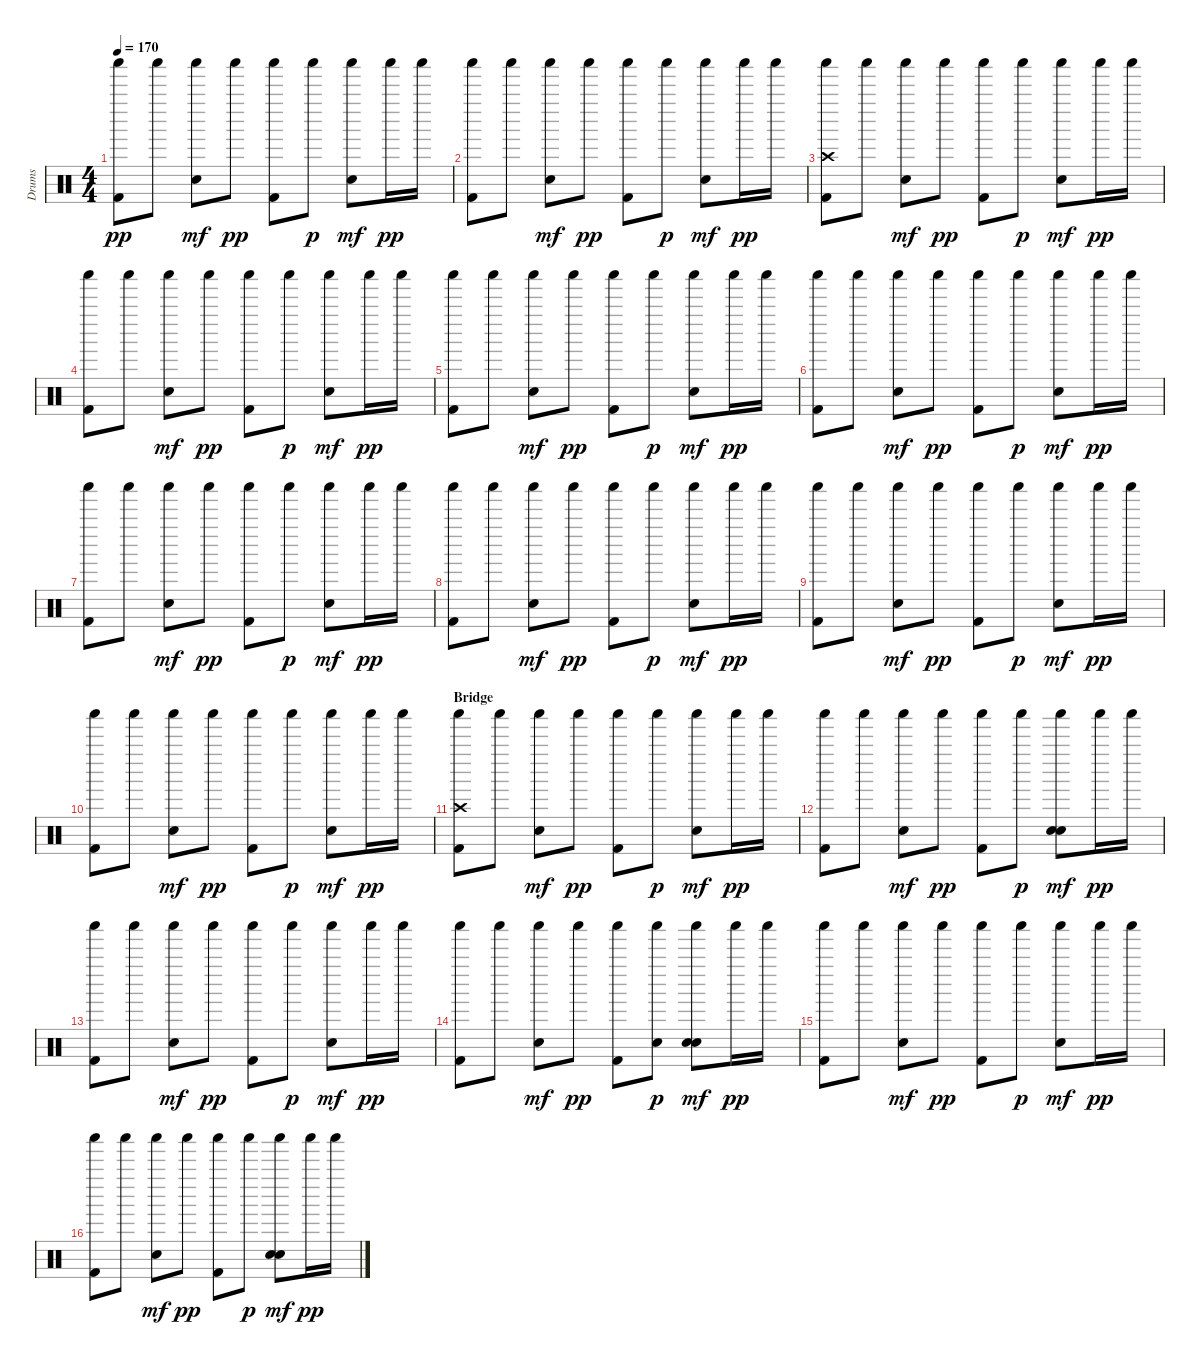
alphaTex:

\track ("Drums" "Drums") {instrument percussion}
\staff {score}
\articulation defaults
\ts (4 4)
\tempo 170
\clef neutral
\ks c
("Kick (hit) 2" "Shaker (hit)").8{dy pp} "Shaker (hit)".8 ("Snare (hit) 2" "Shaker (hit)").8{dy mf} "Shaker (hit)".8{dy pp} ("Kick (hit) 2" "Shaker (hit)").8 "Shaker (hit)".8{dy p} ("Snare (hit) 2" "Shaker (hit)").8{dy mf} "Shaker (hit)".16{dy pp} "Shaker (hit)".16 |
("Kick (hit) 2" "Shaker (hit)").8 "Shaker (hit)".8 ("Snare (hit) 2" "Shaker (hit)").8{dy mf} "Shaker (hit)".8{dy pp} ("Kick (hit) 2" "Shaker (hit)").8 "Shaker (hit)".8{dy p} ("Snare (hit) 2" "Shaker (hit)").8{dy mf} "Shaker (hit)".16{dy pp} "Shaker (hit)".16 |
("Crash high (hit)" "Kick (hit) 2" "Shaker (hit)").8 "Shaker (hit)".8 ("Snare (hit) 2" "Shaker (hit)").8{dy mf} "Shaker (hit)".8{dy pp} ("Kick (hit) 2" "Shaker (hit)").8 "Shaker (hit)".8{dy p} ("Snare (hit) 2" "Shaker (hit)").8{dy mf} "Shaker (hit)".16{dy pp} "Shaker (hit)".16 |
("Kick (hit) 2" "Shaker (hit)").8 "Shaker (hit)".8 ("Snare (hit) 2" "Shaker (hit)").8{dy mf} "Shaker (hit)".8{dy pp} ("Kick (hit) 2" "Shaker (hit)").8 "Shaker (hit)".8{dy p} ("Snare (hit) 2" "Shaker (hit)").8{dy mf} "Shaker (hit)".16{dy pp} "Shaker (hit)".16 |
("Kick (hit) 2" "Shaker (hit)").8 "Shaker (hit)".8 ("Snare (hit) 2" "Shaker (hit)").8{dy mf} "Shaker (hit)".8{dy pp} ("Kick (hit) 2" "Shaker (hit)").8 "Shaker (hit)".8{dy p} ("Snare (hit) 2" "Shaker (hit)").8{dy mf} "Shaker (hit)".16{dy pp} "Shaker (hit)".16 |
("Kick (hit) 2" "Shaker (hit)").8 "Shaker (hit)".8 ("Snare (hit) 2" "Shaker (hit)").8{dy mf} "Shaker (hit)".8{dy pp} ("Kick (hit) 2" "Shaker (hit)").8 "Shaker (hit)".8{dy p} ("Snare (hit) 2" "Shaker (hit)").8{dy mf} "Shaker (hit)".16{dy pp} "Shaker (hit)".16 |
("Kick (hit) 2" "Shaker (hit)").8 "Shaker (hit)".8 ("Snare (hit) 2" "Shaker (hit)").8{dy mf} "Shaker (hit)".8{dy pp} ("Kick (hit) 2" "Shaker (hit)").8 "Shaker (hit)".8{dy p} ("Snare (hit) 2" "Shaker (hit)").8{dy mf} "Shaker (hit)".16{dy pp} "Shaker (hit)".16 |
("Kick (hit) 2" "Shaker (hit)").8 "Shaker (hit)".8 ("Snare (hit) 2" "Shaker (hit)").8{dy mf} "Shaker (hit)".8{dy pp} ("Kick (hit) 2" "Shaker (hit)").8 "Shaker (hit)".8{dy p} ("Snare (hit) 2" "Shaker (hit)").8{dy mf} "Shaker (hit)".16{dy pp} "Shaker (hit)".16 |
("Kick (hit) 2" "Shaker (hit)").8 "Shaker (hit)".8 ("Snare (hit) 2" "Shaker (hit)").8{dy mf} "Shaker (hit)".8{dy pp} ("Kick (hit) 2" "Shaker (hit)").8 "Shaker (hit)".8{dy p} ("Snare (hit) 2" "Shaker (hit)").8{dy mf} "Shaker (hit)".16{dy pp} "Shaker (hit)".16 |
("Kick (hit) 2" "Shaker (hit)").8 "Shaker (hit)".8 ("Snare (hit) 2" "Shaker (hit)").8{dy mf} "Shaker (hit)".8{dy pp} ("Kick (hit) 2" "Shaker (hit)").8 "Shaker (hit)".8{dy p} ("Snare (hit) 2" "Shaker (hit)").8{dy mf} "Shaker (hit)".16{dy pp} "Shaker (hit)".16 |
\section ("" "Bridge")
("Crash high (hit)" "Kick (hit) 2" "Shaker (hit)").8 "Shaker (hit)".8 ("Snare (hit) 2" "Shaker (hit)").8{dy mf} "Shaker (hit)".8{dy pp} ("Kick (hit) 2" "Shaker (hit)").8 "Shaker (hit)".8{dy p} ("Snare (hit) 2" "Shaker (hit)").8{dy mf} "Shaker (hit)".16{dy pp} "Shaker (hit)".16 |
("Kick (hit) 2" "Shaker (hit)").8 "Shaker (hit)".8 ("Snare (hit) 2" "Shaker (hit)").8{dy mf} "Shaker (hit)".8{dy pp} ("Kick (hit) 2" "Shaker (hit)").8 "Shaker (hit)".8{dy p} ("Snare (hit) 2" "Shaker (hit)" "Hand Clap (hit)").8{dy mf} "Shaker (hit)".16{dy pp} "Shaker (hit)".16 |
("Kick (hit) 2" "Shaker (hit)").8 "Shaker (hit)".8 ("Snare (hit) 2" "Shaker (hit)").8{dy mf} "Shaker (hit)".8{dy pp} ("Kick (hit) 2" "Shaker (hit)").8 "Shaker (hit)".8{dy p} ("Snare (hit) 2" "Shaker (hit)").8{dy mf} "Shaker (hit)".16{dy pp} "Shaker (hit)".16 |
("Kick (hit) 2" "Shaker (hit)").8 "Shaker (hit)".8 ("Snare (hit) 2" "Shaker (hit)").8{dy mf} "Shaker (hit)".8{dy pp} ("Kick (hit) 2" "Shaker (hit)").8 ("Snare (hit) 2" "Shaker (hit)").8{dy p} ("Snare (hit) 2" "Shaker (hit)" "Hand Clap (hit)").8{dy mf} "Shaker (hit)".16{dy pp} "Shaker (hit)".16 |
("Kick (hit) 2" "Shaker (hit)").8 "Shaker (hit)".8 ("Snare (hit) 2" "Shaker (hit)").8{dy mf} "Shaker (hit)".8{dy pp} ("Kick (hit) 2" "Shaker (hit)").8 "Shaker (hit)".8{dy p} ("Snare (hit) 2" "Shaker (hit)").8{dy mf} "Shaker (hit)".16{dy pp} "Shaker (hit)".16 |
("Kick (hit) 2" "Shaker (hit)").8 "Shaker (hit)".8 ("Snare (hit) 2" "Shaker (hit)").8{dy mf} "Shaker (hit)".8{dy pp} ("Kick (hit) 2" "Shaker (hit)").8 "Shaker (hit)".8{dy p} ("Snare (hit) 2" "Shaker (hit)" "Hand Clap (hit)").8{dy mf} "Shaker (hit)".16{dy pp} "Shaker (hit)".16
